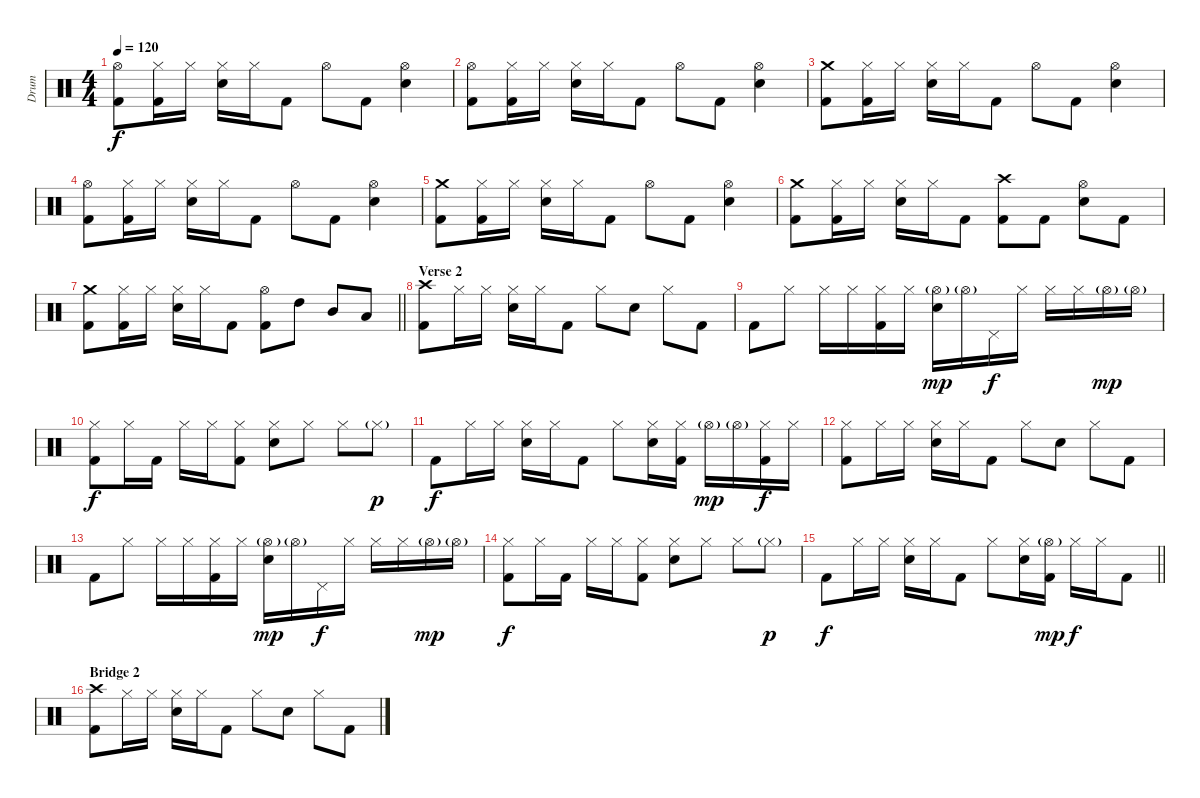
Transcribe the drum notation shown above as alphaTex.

\track ("Drum" "Drum") {instrument percussion}
\staff {score}
\articulation defaults
\ts (4 4)
\tempo 120
\clef neutral
\ks c
("Hi-Hat (open)" "Kick (hit) 2").8{dy f} ("Hi-Hat (closed)" "Kick (hit) 2").16 "Hi-Hat (closed)".16 ("Hi-Hat (closed)" "Electric Snare (hit)").16 "Hi-Hat (closed)".16 "Kick (hit) 2".8 "Hi-Hat (open)".8 "Kick (hit) 2".8 ("Hi-Hat (open)" "Electric Snare (hit)").4 |
("Hi-Hat (open)" "Kick (hit) 2").8 ("Hi-Hat (closed)" "Kick (hit) 2").16 "Hi-Hat (closed)".16 ("Hi-Hat (closed)" "Electric Snare (hit)").16 "Hi-Hat (closed)".16 "Kick (hit) 2".8 "Hi-Hat (open)".8 "Kick (hit) 2".8 ("Hi-Hat (open)" "Electric Snare (hit)").4 |
("Crash medium (hit)" "Kick (hit) 2").8 ("Hi-Hat (closed)" "Kick (hit) 2").16 "Hi-Hat (closed)".16 ("Hi-Hat (closed)" "Electric Snare (hit)").16 "Hi-Hat (closed)".16 "Kick (hit) 2".8 "Hi-Hat (open)".8 "Kick (hit) 2".8 ("Hi-Hat (open)" "Electric Snare (hit)").4 |
("Hi-Hat (open)" "Kick (hit) 2").8 ("Hi-Hat (closed)" "Kick (hit) 2").16 "Hi-Hat (closed)".16 ("Hi-Hat (closed)" "Electric Snare (hit)").16 "Hi-Hat (closed)".16 "Kick (hit) 2".8 "Hi-Hat (open)".8 "Kick (hit) 2".8 ("Hi-Hat (open)" "Electric Snare (hit)").4 |
("Crash medium (hit)" "Kick (hit) 2").8 ("Hi-Hat (closed)" "Kick (hit) 2").16 "Hi-Hat (closed)".16 ("Hi-Hat (closed)" "Electric Snare (hit)").16 "Hi-Hat (closed)".16 "Kick (hit) 2".8 "Hi-Hat (open)".8 "Kick (hit) 2".8 ("Hi-Hat (open)" "Electric Snare (hit)").4 |
("Crash medium (hit)" "Kick (hit) 2").8 ("Hi-Hat (closed)" "Kick (hit) 2").16 "Hi-Hat (closed)".16 ("Hi-Hat (closed)" "Electric Snare (hit)").16 "Hi-Hat (closed)".16 "Kick (hit) 2".8 ("Crash high (hit)" "Kick (hit) 2").8 "Kick (hit) 2".8 ("Hi-Hat (open)" "Electric Snare (hit)").8 "Kick (hit) 2".8 |
\barLineRight lightlight
("Crash medium (hit)" "Kick (hit) 2").8 ("Hi-Hat (closed)" "Kick (hit) 2").16 "Hi-Hat (closed)".16 ("Hi-Hat (closed)" "Electric Snare (hit)").16 "Hi-Hat (closed)".16 "Kick (hit) 2".8 ("Hi-Hat (open)" "Kick (hit) 2").8 "High Tom (hit)".8 "Mid Tom (hit)".8 "Low Tom (hit)".8 |
\section ("" "Verse 2")
("Crash high (hit)" "Kick (hit) 2").8 "Hi-Hat (closed)".16 "Hi-Hat (closed)".16 ("Hi-Hat (closed)" "Electric Snare (hit)").16 "Hi-Hat (closed)".16 "Kick (hit) 2".8 "Hi-Hat (closed)".8 "Electric Snare (hit)".8 "Hi-Hat (closed)".8 "Kick (hit) 2".8 |
"Kick (hit) 2".8 "Hi-Hat (closed)".8 "Hi-Hat (closed)".16 "Hi-Hat (closed)".16 ("Hi-Hat (closed)" "Kick (hit) 2").16 "Hi-Hat (closed)".16 ("Hi-Hat (open)"{g} "Electric Snare (hit)").16{dy mp} "Hi-Hat (open)"{g}.16 "Pedal Hi-Hat (hit)".16{dy f} "Hi-Hat (closed)".16 "Hi-Hat (closed)".16 "Hi-Hat (closed)".16 "Hi-Hat (open)"{g}.16{dy mp} "Hi-Hat (open)"{g}.16 |
("Hi-Hat (closed)" "Kick (hit) 2").8{dy f} "Hi-Hat (closed)".16 "Kick (hit) 2".16 "Hi-Hat (closed)".16 "Hi-Hat (closed)".16 ("Hi-Hat (closed)" "Kick (hit) 2").8 ("Hi-Hat (closed)" "Electric Snare (hit)").8 "Hi-Hat (closed)".8 "Hi-Hat (closed)".8 "Hi-Hat (closed)"{g}.8{dy p} |
"Kick (hit) 2".8{dy f} "Hi-Hat (closed)".16 "Hi-Hat (closed)".16 ("Hi-Hat (closed)" "Electric Snare (hit)").16 "Hi-Hat (closed)".16 "Kick (hit) 2".8 "Hi-Hat (closed)".8 ("Hi-Hat (closed)" "Electric Snare (hit)").16 ("Hi-Hat (closed)" "Kick (hit) 2").16 "Hi-Hat (open)"{g}.16{dy mp} "Hi-Hat (open)"{g}.16 ("Hi-Hat (closed)" "Kick (hit) 2").16{dy f} "Hi-Hat (closed)".16 |
("Hi-Hat (closed)" "Kick (hit) 2").8 "Hi-Hat (closed)".16 "Hi-Hat (closed)".16 ("Hi-Hat (closed)" "Electric Snare (hit)").16 "Hi-Hat (closed)".16 "Kick (hit) 2".8 "Hi-Hat (closed)".8 "Electric Snare (hit)".8 "Hi-Hat (closed)".8 "Kick (hit) 2".8 |
"Kick (hit) 2".8 "Hi-Hat (closed)".8 "Hi-Hat (closed)".16 "Hi-Hat (closed)".16 ("Hi-Hat (closed)" "Kick (hit) 2").16 "Hi-Hat (closed)".16 ("Hi-Hat (open)"{g} "Electric Snare (hit)").16{dy mp} "Hi-Hat (open)"{g}.16 "Pedal Hi-Hat (hit)".16{dy f} "Hi-Hat (closed)".16 "Hi-Hat (closed)".16 "Hi-Hat (closed)".16 "Hi-Hat (open)"{g}.16{dy mp} "Hi-Hat (open)"{g}.16 |
("Hi-Hat (closed)" "Kick (hit) 2").8{dy f} "Hi-Hat (closed)".16 "Kick (hit) 2".16 "Hi-Hat (closed)".16 "Hi-Hat (closed)".16 ("Hi-Hat (closed)" "Kick (hit) 2").8 ("Hi-Hat (closed)" "Electric Snare (hit)").8 "Hi-Hat (closed)".8 "Hi-Hat (closed)".8 "Hi-Hat (closed)"{g}.8{dy p} |
\barLineRight lightlight "Kick (hit) 2".8{dy f} "Hi-Hat (closed)".16 "Hi-Hat (closed)".16
("Hi-Hat (closed)" "Electric Snare (hit)").16 "Hi-Hat (closed)".16 "Kick (hit) 2".8 "Hi-Hat (closed)".8 ("Hi-Hat (closed)" "Electric Snare (hit)").16 ("Hi-Hat (open)"{g} "Kick (hit) 2").16{dy mp} "Hi-Hat (closed)".16{dy f} "Hi-Hat (closed)".16 "Kick (hit) 2".8 |
\section ("" "Bridge 2")
("Crash high (hit)" "Kick (hit) 2").8 "Hi-Hat (closed)".16 "Hi-Hat (closed)".16 ("Hi-Hat (closed)" "Electric Snare (hit)").16 "Hi-Hat (closed)".16 "Kick (hit) 2".8 "Hi-Hat (closed)".8 "Electric Snare (hit)".8 "Hi-Hat (closed)".8 "Kick (hit) 2".8
